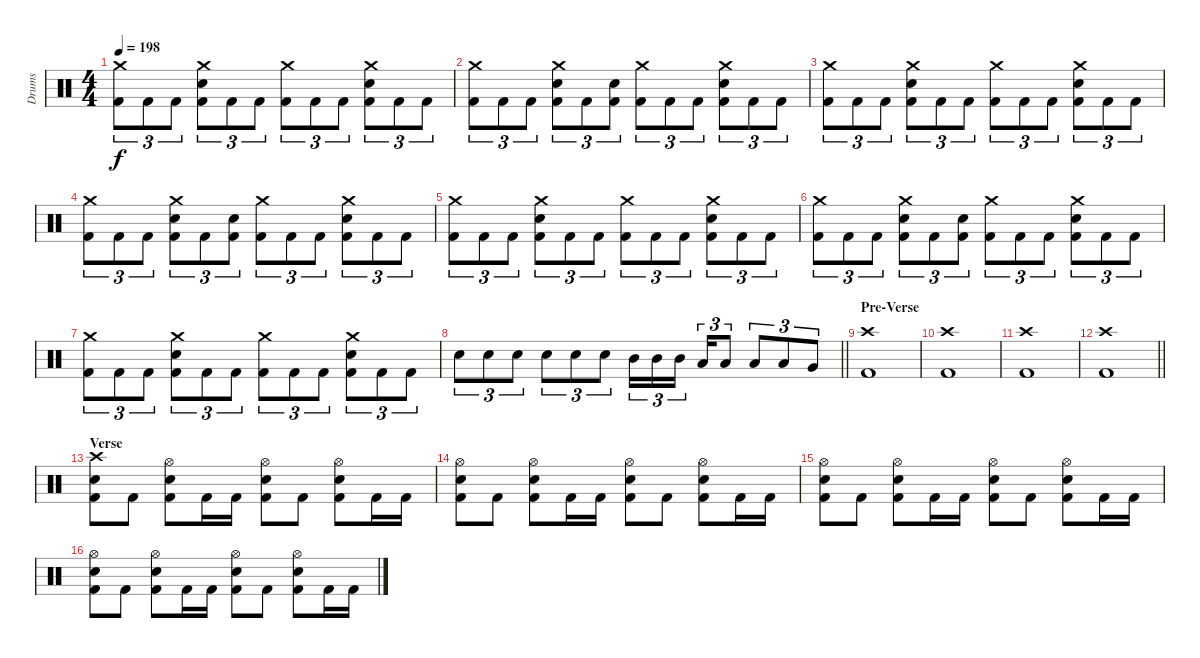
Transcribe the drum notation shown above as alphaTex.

\track ("Drums" "Drums") {instrument percussion}
\staff {score}
\articulation defaults
\ts (4 4)
\tempo 198
\clef neutral
\ks c
("Crash medium (hit)" "Kick (hit) 2").8{tu (3 2) dy f} "Kick (hit) 2".8{tu (3 2)} "Kick (hit) 2".8{tu (3 2)} ("Crash medium (hit)" "Electric Snare (hit)" "Kick (hit) 2").8{tu (3 2)} "Kick (hit) 2".8{tu (3 2)} "Kick (hit) 2".8{tu (3 2)} ("Crash medium (hit)" "Kick (hit) 2").8{tu (3 2)} "Kick (hit) 2".8{tu (3 2)} "Kick (hit) 2".8{tu (3 2)} ("Crash medium (hit)" "Electric Snare (hit)" "Kick (hit) 2").8{tu (3 2)} "Kick (hit) 2".8{tu (3 2)} "Kick (hit) 2".8{tu (3 2)} |
("Crash medium (hit)" "Kick (hit) 2").8{tu (3 2)} "Kick (hit) 2".8{tu (3 2)} "Kick (hit) 2".8{tu (3 2)} ("Crash medium (hit)" "Electric Snare (hit)" "Kick (hit) 2").8{tu (3 2)} "Kick (hit) 2".8{tu (3 2)} ("Electric Snare (hit)" "Kick (hit) 2").8{tu (3 2)} ("Crash medium (hit)" "Kick (hit) 2").8{tu (3 2)} "Kick (hit) 2".8{tu (3 2)} "Kick (hit) 2".8{tu (3 2)} ("Crash medium (hit)" "Electric Snare (hit)" "Kick (hit) 2").8{tu (3 2)} "Kick (hit) 2".8{tu (3 2)} "Kick (hit) 2".8{tu (3 2)} |
("Crash medium (hit)" "Kick (hit) 2").8{tu (3 2)} "Kick (hit) 2".8{tu (3 2)} "Kick (hit) 2".8{tu (3 2)} ("Crash medium (hit)" "Electric Snare (hit)" "Kick (hit) 2").8{tu (3 2)} "Kick (hit) 2".8{tu (3 2)} "Kick (hit) 2".8{tu (3 2)} ("Crash medium (hit)" "Kick (hit) 2").8{tu (3 2)} "Kick (hit) 2".8{tu (3 2)} "Kick (hit) 2".8{tu (3 2)} ("Crash medium (hit)" "Electric Snare (hit)" "Kick (hit) 2").8{tu (3 2)} "Kick (hit) 2".8{tu (3 2)} "Kick (hit) 2".8{tu (3 2)} |
("Crash medium (hit)" "Kick (hit) 2").8{tu (3 2)} "Kick (hit) 2".8{tu (3 2)} "Kick (hit) 2".8{tu (3 2)} ("Crash medium (hit)" "Electric Snare (hit)" "Kick (hit) 2").8{tu (3 2)} "Kick (hit) 2".8{tu (3 2)} ("Electric Snare (hit)" "Kick (hit) 2").8{tu (3 2)} ("Crash medium (hit)" "Kick (hit) 2").8{tu (3 2)} "Kick (hit) 2".8{tu (3 2)} "Kick (hit) 2".8{tu (3 2)} ("Crash medium (hit)" "Electric Snare (hit)" "Kick (hit) 2").8{tu (3 2)} "Kick (hit) 2".8{tu (3 2)} "Kick (hit) 2".8{tu (3 2)} |
("Crash medium (hit)" "Kick (hit) 2").8{tu (3 2)} "Kick (hit) 2".8{tu (3 2)} "Kick (hit) 2".8{tu (3 2)} ("Crash medium (hit)" "Electric Snare (hit)" "Kick (hit) 2").8{tu (3 2)} "Kick (hit) 2".8{tu (3 2)} "Kick (hit) 2".8{tu (3 2)} ("Crash medium (hit)" "Kick (hit) 2").8{tu (3 2)} "Kick (hit) 2".8{tu (3 2)} "Kick (hit) 2".8{tu (3 2)} ("Crash medium (hit)" "Electric Snare (hit)" "Kick (hit) 2").8{tu (3 2)} "Kick (hit) 2".8{tu (3 2)} "Kick (hit) 2".8{tu (3 2)} |
("Crash medium (hit)" "Kick (hit) 2").8{tu (3 2)} "Kick (hit) 2".8{tu (3 2)} "Kick (hit) 2".8{tu (3 2)} ("Crash medium (hit)" "Electric Snare (hit)" "Kick (hit) 2").8{tu (3 2)} "Kick (hit) 2".8{tu (3 2)} ("Electric Snare (hit)" "Kick (hit) 2").8{tu (3 2)} ("Crash medium (hit)" "Kick (hit) 2").8{tu (3 2)} "Kick (hit) 2".8{tu (3 2)} "Kick (hit) 2".8{tu (3 2)} ("Crash medium (hit)" "Electric Snare (hit)" "Kick (hit) 2").8{tu (3 2)} "Kick (hit) 2".8{tu (3 2)} "Kick (hit) 2".8{tu (3 2)} |
("Crash medium (hit)" "Kick (hit) 2").8{tu (3 2)} "Kick (hit) 2".8{tu (3 2)} "Kick (hit) 2".8{tu (3 2)} ("Crash medium (hit)" "Electric Snare (hit)" "Kick (hit) 2").8{tu (3 2)} "Kick (hit) 2".8{tu (3 2)} "Kick (hit) 2".8{tu (3 2)} ("Crash medium (hit)" "Kick (hit) 2").8{tu (3 2)} "Kick (hit) 2".8{tu (3 2)} "Kick (hit) 2".8{tu (3 2)} ("Crash medium (hit)" "Electric Snare (hit)" "Kick (hit) 2").8{tu (3 2)} "Kick (hit) 2".8{tu (3 2)} "Kick (hit) 2".8{tu (3 2)} |
\barLineRight lightlight "Electric Snare (hit)".8{tu (3 2)} "Electric Snare (hit)".8{tu (3 2)} "Electric Snare (hit)".8{tu (3 2)} "Electric Snare (hit)".8{tu (3 2)} "Electric Snare (hit)".8{tu (3 2)} "Electric Snare (hit)".8{tu (3 2)} "Mid Tom (hit)".16{tu (3 2)} "Mid Tom (hit)".16{tu (3 2)} "Mid Tom (hit)".16{tu (3 2) beam splitsecondary} "Low Tom (hit)".16{tu (3 2)} "Low Tom (hit)".8{tu (3 2)} "Low Tom (hit)".8{tu (3 2)} "Low Tom (hit)".8{tu (3 2)} "Very Low Tom (hit)".8{tu (3 2)}
|
\section ("" "Pre-Verse")
("Crash high (hit)" "Kick (hit) 2").1 |
("Crash high (hit)" "Kick (hit) 2").1 |
("Crash high (hit)" "Kick (hit) 2").1 |
\barLineRight lightlight
("Crash high (hit)" "Kick (hit) 2").1 |
\section ("" "Verse")
("Crash high (hit)" "Electric Snare (hit)" "Kick (hit) 2").8 "Kick (hit) 2".8 ("Hi-Hat (open)" "Electric Snare (hit)" "Kick (hit) 2").8 "Kick (hit) 2".16 "Kick (hit) 2".16 ("Hi-Hat (open)" "Electric Snare (hit)" "Kick (hit) 2").8 "Kick (hit) 2".8 ("Hi-Hat (open)" "Electric Snare (hit)" "Kick (hit) 2").8 "Kick (hit) 2".16 "Kick (hit) 2".16 |
("Hi-Hat (open)" "Electric Snare (hit)" "Kick (hit) 2").8 "Kick (hit) 2".8 ("Hi-Hat (open)" "Electric Snare (hit)" "Kick (hit) 2").8 "Kick (hit) 2".16 "Kick (hit) 2".16 ("Hi-Hat (open)" "Electric Snare (hit)" "Kick (hit) 2").8 "Kick (hit) 2".8 ("Hi-Hat (open)" "Electric Snare (hit)" "Kick (hit) 2").8 "Kick (hit) 2".16 "Kick (hit) 2".16 |
("Hi-Hat (open)" "Electric Snare (hit)" "Kick (hit) 2").8 "Kick (hit) 2".8 ("Hi-Hat (open)" "Electric Snare (hit)" "Kick (hit) 2").8 "Kick (hit) 2".16 "Kick (hit) 2".16 ("Hi-Hat (open)" "Electric Snare (hit)" "Kick (hit) 2").8 "Kick (hit) 2".8 ("Hi-Hat (open)" "Electric Snare (hit)" "Kick (hit) 2").8 "Kick (hit) 2".16 "Kick (hit) 2".16 |
("Hi-Hat (open)" "Electric Snare (hit)" "Kick (hit) 2").8 "Kick (hit) 2".8 ("Hi-Hat (open)" "Electric Snare (hit)" "Kick (hit) 2").8 "Kick (hit) 2".16 "Kick (hit) 2".16 ("Hi-Hat (open)" "Electric Snare (hit)" "Kick (hit) 2").8 "Kick (hit) 2".8 ("Hi-Hat (open)" "Electric Snare (hit)" "Kick (hit) 2").8 "Kick (hit) 2".16 "Kick (hit) 2".16
